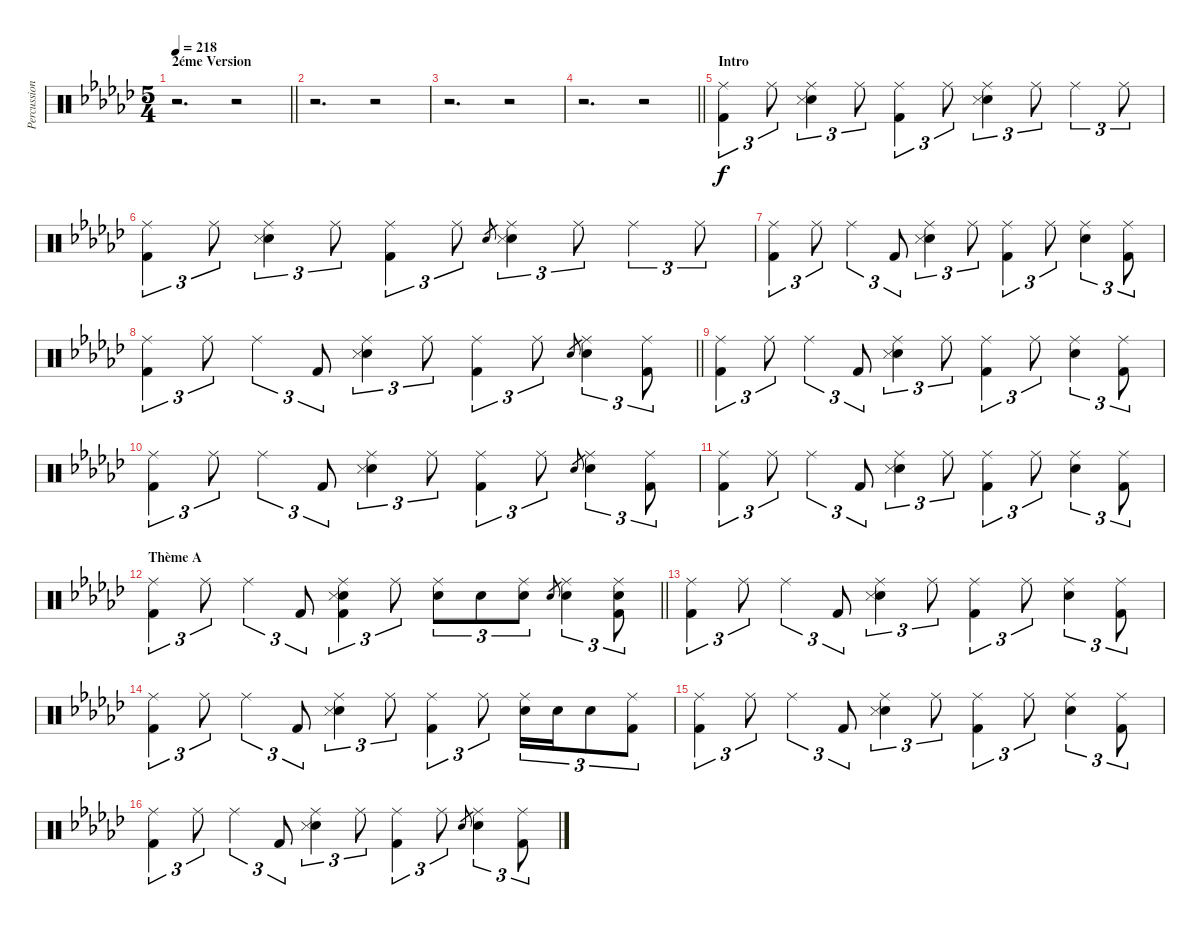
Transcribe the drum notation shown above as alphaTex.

\track ("Percussions" "Percussion") {instrument percussion}
\staff {score}
\articulation defaults
\ts (5 4)
\section ("" "2éme Version")
\tempo 218
\clef neutral
\barLineRight lightlight
\ks ebminor
r.2{d dy f} r.2 |
r.2{d} r.2 |
r.2{d} r.2 |
\barLineRight lightlight
r.2{d} r.2 |
\section ("" "Intro")
("Ride (middle)" "Kick (hit) 2").4{tu (3 2) volume 14 balance 8} "Ride (middle)".8{tu (3 2)} ("Ride (middle)" "Snare (hit) 2" "Snare (side stick) 3").4{tu (3 2)} "Ride (middle)".8{tu (3 2)} ("Ride (middle)" "Kick (hit) 2").4{tu (3 2)} "Ride (middle)".8{tu (3 2)} ("Ride (middle)" "Snare (hit) 2" "Snare (side stick) 3").4{tu (3 2)} "Ride (middle)".8{tu (3 2)} "Ride (middle)".4{tu (3 2)} "Ride (middle)".8{tu (3 2)} |
("Ride (middle)" "Kick (hit) 2").4{tu (3 2)} "Ride (middle)".8{tu (3 2)} ("Ride (middle)" "Snare (hit) 2" "Snare (side stick) 3").4{tu (3 2)} "Ride (middle)".8{tu (3 2)} ("Ride (middle)" "Kick (hit) 2").4{tu (3 2)} "Ride (middle)".8{tu (3 2)} "Snare (hit) 2".8{gr} ("Ride (middle)" "Snare (hit) 2" "Snare (side stick) 3").4{tu (3 2)} "Ride (middle)".8{tu (3 2)} "Ride (middle)".4{tu (3 2)} "Ride (middle)".8{tu (3 2)} |
("Ride (middle)" "Kick (hit) 2").4{tu (3 2)} "Ride (middle)".8{tu (3 2)} "Ride (middle)".4{tu (3 2)} "Kick (hit) 2".8{tu (3 2)} ("Ride (middle)" "Snare (hit) 2" "Snare (side stick) 3").4{tu (3 2)} "Ride (middle)".8{tu (3 2)} ("Ride (middle)" "Kick (hit) 2").4{tu (3 2)} "Ride (middle)".8{tu (3 2)} ("Ride (middle)" "Snare (hit) 2").4{tu (3 2)} ("Ride (middle)" "Kick (hit) 2").8{tu (3 2)} |
\barLineRight lightlight
("Ride (middle)" "Kick (hit) 2").4{tu (3 2)} "Ride (middle)".8{tu (3 2)} "Ride (middle)".4{tu (3 2)} "Kick (hit) 2".8{tu (3 2)} ("Ride (middle)" "Snare (hit) 2" "Snare (side stick) 3").4{tu (3 2)} "Ride (middle)".8{tu (3 2)} ("Ride (middle)" "Kick (hit) 2").4{tu (3 2)} "Ride (middle)".8{tu (3 2)} "Snare (hit) 2".8{gr} ("Ride (middle)" "Snare (hit) 2").4{tu (3 2)} ("Ride (middle)" "Kick (hit) 2").8{tu (3 2)} |
("Ride (middle)" "Kick (hit) 2").4{tu (3 2)} "Ride (middle)".8{tu (3 2)} "Ride (middle)".4{tu (3 2)} "Kick (hit) 2".8{tu (3 2)} ("Ride (middle)" "Snare (hit) 2" "Snare (side stick) 3").4{tu (3 2)} "Ride (middle)".8{tu (3 2)} ("Ride (middle)" "Kick (hit) 2").4{tu (3 2)} "Ride (middle)".8{tu (3 2)} ("Ride (middle)" "Snare (hit) 2").4{tu (3 2)} ("Ride (middle)" "Kick (hit) 2").8{tu (3 2)} |
("Ride (middle)" "Kick (hit) 2").4{tu (3 2)} "Ride (middle)".8{tu (3 2)} "Ride (middle)".4{tu (3 2)} "Kick (hit) 2".8{tu (3 2)} ("Ride (middle)" "Snare (hit) 2" "Snare (side stick) 3").4{tu (3 2)} "Ride (middle)".8{tu (3 2)} ("Ride (middle)" "Kick (hit) 2").4{tu (3 2)} "Ride (middle)".8{tu (3 2)} "Snare (hit) 2".8{gr} ("Ride (middle)" "Snare (hit) 2").4{tu (3 2)} ("Ride (middle)" "Kick (hit) 2").8{tu (3 2)} |
("Ride (middle)" "Kick (hit) 2").4{tu (3 2)} "Ride (middle)".8{tu (3 2)} "Ride (middle)".4{tu (3 2)} "Kick (hit) 2".8{tu (3 2)} ("Ride (middle)" "Snare (hit) 2" "Snare (side stick) 3").4{tu (3 2)} "Ride (middle)".8{tu (3 2)} ("Ride (middle)" "Kick (hit) 2").4{tu (3 2)} "Ride (middle)".8{tu (3 2)} ("Ride (middle)" "Snare (hit) 2").4{tu (3 2)} ("Ride (middle)" "Kick (hit) 2").8{tu (3 2)} |
\section ("" "Thème A")
\barLineRight lightlight
("Ride (middle)" "Kick (hit) 2").4{tu (3 2)} "Ride (middle)".8{tu (3 2)} "Ride (middle)".4{tu (3 2)} "Kick (hit) 2".8{tu (3 2)} ("Ride (middle)" "Snare (hit) 2" "Snare (side stick) 3" "Kick (hit) 2").4{tu (3 2)} "Ride (middle)".8{tu (3 2)} ("Ride (middle)" "Snare (hit) 2").8{tu (3 2)} "Snare (hit) 2".8{tu (3 2)} ("Ride (middle)" "Snare (hit) 2").8{tu (3 2)} "Snare (hit) 2".8{gr} ("Ride (middle)" "Snare (hit) 2").4{tu (3 2)} ("Ride (middle)" "Snare (hit) 2" "Kick (hit) 2").8{tu (3 2)} |
("Ride (middle)" "Kick (hit) 2").4{tu (3 2)} "Ride (middle)".8{tu (3 2)} "Ride (middle)".4{tu (3 2)} "Kick (hit) 2".8{tu (3 2)} ("Ride (middle)" "Snare (hit) 2" "Snare (side stick) 3").4{tu (3 2)} "Ride (middle)".8{tu (3 2)} ("Ride (middle)" "Kick (hit) 2").4{tu (3 2)} "Ride (middle)".8{tu (3 2)} ("Ride (middle)" "Snare (hit) 2").4{tu (3 2)} ("Ride (middle)" "Kick (hit) 2").8{tu (3 2)} |
("Ride (middle)" "Kick (hit) 2").4{tu (3 2)} "Ride (middle)".8{tu (3 2)} "Ride (middle)".4{tu (3 2)} "Kick (hit) 2".8{tu (3 2)} ("Ride (middle)" "Snare (hit) 2" "Snare (side stick) 3").4{tu (3 2)} "Ride (middle)".8{tu (3 2)} ("Ride (middle)" "Kick (hit) 2").4{tu (3 2)} "Ride (middle)".8{tu (3 2)} ("Ride (middle)" "Snare (hit) 2").16{tu (3 2)} "Snare (hit) 2".16{tu (3 2)} "Snare (hit) 2".8{tu (3 2)} ("Ride (middle)" "Kick (hit) 2").8{tu (3 2)} |
("Ride (middle)" "Kick (hit) 2").4{tu (3 2)} "Ride (middle)".8{tu (3 2)} "Ride (middle)".4{tu (3 2)} "Kick (hit) 2".8{tu (3 2)} ("Ride (middle)" "Snare (hit) 2" "Snare (side stick) 3").4{tu (3 2)} "Ride (middle)".8{tu (3 2)} ("Ride (middle)" "Kick (hit) 2").4{tu (3 2)} "Ride (middle)".8{tu (3 2)} ("Ride (middle)" "Snare (hit) 2").4{tu (3 2)} ("Ride (middle)" "Kick (hit) 2").8{tu (3 2)} |
("Ride (middle)" "Kick (hit) 2").4{tu (3 2)} "Ride (middle)".8{tu (3 2)} "Ride (middle)".4{tu (3 2)} "Kick (hit) 2".8{tu (3 2)} ("Ride (middle)" "Snare (hit) 2" "Snare (side stick) 3").4{tu (3 2)} "Ride (middle)".8{tu (3 2)} ("Ride (middle)" "Kick (hit) 2").4{tu (3 2)} "Ride (middle)".8{tu (3 2)} "Snare (hit) 2".8{gr} ("Ride (middle)" "Snare (hit) 2").4{tu (3 2)} ("Ride (middle)" "Kick (hit) 2").8{tu (3 2)}
